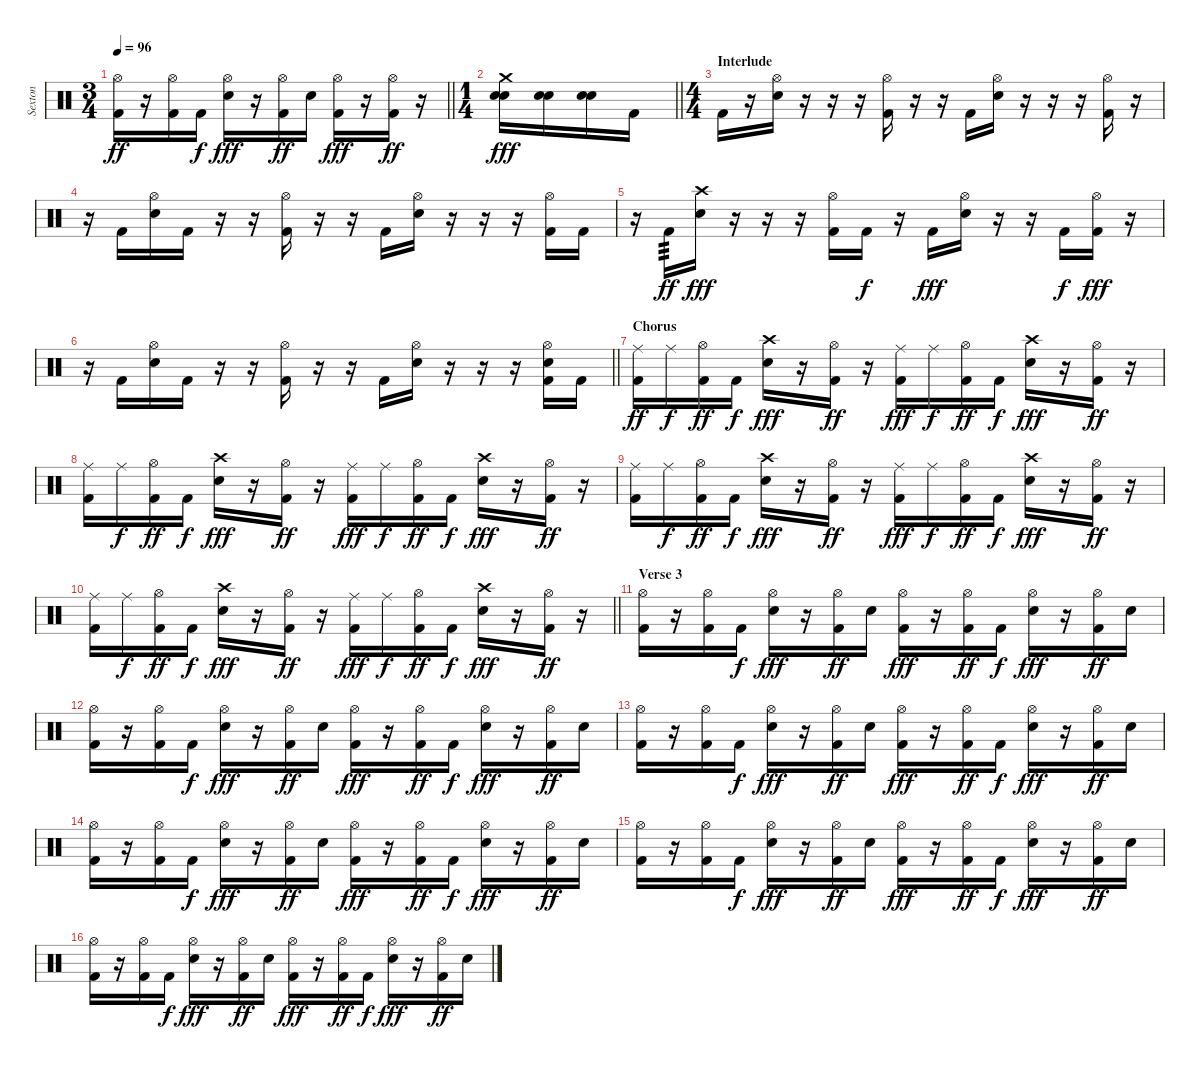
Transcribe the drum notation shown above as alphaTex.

\track ("Sexton" "Sexton") {instrument percussion}
\staff {score}
\articulation defaults
\ts (3 4)
\tempo 96
\clef neutral
\barLineRight lightlight
\ks c
("Hi-Hat (open)" "Kick (hit) 2").16{dy ff} r.16 ("Hi-Hat (open)" "Kick (hit) 2").16 "Kick (hit) 2".16{dy f} ("Hi-Hat (open)" "Electric Snare (hit)").16{dy fff} r.16 ("Hi-Hat (open)" "Kick (hit) 2").16{dy ff} "Electric Snare (hit)".16 ("Hi-Hat (open)" "Kick (hit) 2").16{dy fff} r.16 ("Hi-Hat (open)" "Kick (hit) 2").16{dy ff} r.16 |
\ts (1 4)
\barLineRight lightlight
("Crash medium (hit)" "Electric Snare (hit)" "Electric Snare (hit)").16{dy fff} ("Electric Snare (hit)" "Electric Snare (hit)").16 ("Electric Snare (hit)" "Electric Snare (hit)").16 "Kick (hit) 2".16 |
\ts (4 4)
\section ("" "Interlude")
"Kick (hit) 2".16 r.16 ("Hi-Hat (open)" "Electric Snare (hit)").16 r.16 r.16 r.16 ("Hi-Hat (open)" "Kick (hit) 2").16 r.16 r.16 "Kick (hit) 2".16 ("Hi-Hat (open)" "Electric Snare (hit)").16 r.16 r.16 r.16 ("Hi-Hat (open)" "Kick (hit) 2").16 r.16 |
r.16 "Kick (hit) 2".16 ("Hi-Hat (open)" "Electric Snare (hit)").16 "Kick (hit) 2".16 r.16 r.16 ("Hi-Hat (open)" "Kick (hit) 2").16 r.16 r.16 "Kick (hit) 2".16 ("Hi-Hat (open)" "Electric Snare (hit)").16 r.16 r.16 r.16 ("Hi-Hat (open)" "Kick (hit) 2").16 "Kick (hit) 2".16 |
r.16 "Kick (hit) 2".16{tp 3 dy ff} ("Crash high (hit)" "Electric Snare (hit)").16{dy fff} r.16 r.16 r.16 ("Hi-Hat (open)" "Kick (hit) 2").16 "Kick (hit) 2".16{dy f} r.16 "Kick (hit) 2".16{dy fff} ("Hi-Hat (open)" "Electric Snare (hit)").16 r.16 r.16 "Kick (hit) 2".16{dy f} ("Hi-Hat (open)" "Kick (hit) 2").16{dy fff} r.16 |
\barLineRight lightlight
r.16 "Kick (hit) 2".16 ("Hi-Hat (open)" "Electric Snare (hit)").16 "Kick (hit) 2".16 r.16 r.16 ("Hi-Hat (open)" "Kick (hit) 2").16 r.16 r.16 "Kick (hit) 2".16 ("Hi-Hat (open)" "Electric Snare (hit)").16 r.16 r.16 r.16 ("Hi-Hat (open)" "Electric Snare (hit)" "Kick (hit) 2").16 "Kick (hit) 2".16 |
\section ("" "Chorus")
("Ride (middle)" "Kick (hit) 2").16{dy ff} "Ride (middle)".16{dy f} ("Hi-Hat (open)" "Kick (hit) 2").16{dy ff} "Kick (hit) 2".16{dy f} ("Crash high (hit)" "Electric Snare (hit)").16{dy fff} r.16 ("Hi-Hat (open)" "Kick (hit) 2").16{dy ff} r.16 ("Ride (middle)" "Kick (hit) 2").16{dy fff} "Ride (middle)".16{dy f} ("Hi-Hat (open)" "Kick (hit) 2").16{dy ff} "Kick (hit) 2".16{dy f} ("Crash high (hit)" "Electric Snare (hit)").16{dy fff} r.16 ("Hi-Hat (open)" "Kick (hit) 2").16{dy ff} r.16 |
("Ride (middle)" "Kick (hit) 2").16 "Ride (middle)".16{dy f} ("Hi-Hat (open)" "Kick (hit) 2").16{dy ff} "Kick (hit) 2".16{dy f} ("Crash high (hit)" "Electric Snare (hit)").16{dy fff} r.16 ("Hi-Hat (open)" "Kick (hit) 2").16{dy ff} r.16 ("Ride (middle)" "Kick (hit) 2").16{dy fff} "Ride (middle)".16{dy f} ("Hi-Hat (open)" "Kick (hit) 2").16{dy ff} "Kick (hit) 2".16{dy f} ("Crash high (hit)" "Electric Snare (hit)").16{dy fff} r.16 ("Hi-Hat (open)" "Kick (hit) 2").16{dy ff} r.16 |
("Ride (middle)" "Kick (hit) 2").16 "Ride (middle)".16{dy f} ("Hi-Hat (open)" "Kick (hit) 2").16{dy ff} "Kick (hit) 2".16{dy f} ("Crash high (hit)" "Electric Snare (hit)").16{dy fff} r.16 ("Hi-Hat (open)" "Kick (hit) 2").16{dy ff} r.16 ("Ride (middle)" "Kick (hit) 2").16{dy fff} "Ride (middle)".16{dy f} ("Hi-Hat (open)" "Kick (hit) 2").16{dy ff} "Kick (hit) 2".16{dy f} ("Crash high (hit)" "Electric Snare (hit)").16{dy fff} r.16 ("Hi-Hat (open)" "Kick (hit) 2").16{dy ff} r.16 |
\barLineRight lightlight
("Ride (middle)" "Kick (hit) 2").16 "Ride (middle)".16{dy f} ("Hi-Hat (open)" "Kick (hit) 2").16{dy ff} "Kick (hit) 2".16{dy f} ("Crash high (hit)" "Electric Snare (hit)").16{dy fff} r.16 ("Hi-Hat (open)" "Kick (hit) 2").16{dy ff} r.16 ("Ride (middle)" "Kick (hit) 2").16{dy fff} "Ride (middle)".16{dy f} ("Hi-Hat (open)" "Kick (hit) 2").16{dy ff} "Kick (hit) 2".16{dy f} ("Crash high (hit)" "Electric Snare (hit)").16{dy fff} r.16 ("Hi-Hat (open)" "Kick (hit) 2").16{dy ff} r.16 |
\section ("" "Verse 3")
("Hi-Hat (open)" "Kick (hit) 2").16 r.16 ("Hi-Hat (open)" "Kick (hit) 2").16 "Kick (hit) 2".16{dy f} ("Hi-Hat (open)" "Electric Snare (hit)").16{dy fff} r.16 ("Hi-Hat (open)" "Kick (hit) 2").16{dy ff} "Electric Snare (hit)".16 ("Hi-Hat (open)" "Kick (hit) 2").16{dy fff} r.16 ("Hi-Hat (open)" "Kick (hit) 2").16{dy ff} "Kick (hit) 2".16{dy f} ("Hi-Hat (open)" "Electric Snare (hit)").16{dy fff} r.16 ("Hi-Hat (open)" "Kick (hit) 2").16{dy ff} "Electric Snare (hit)".16 |
("Hi-Hat (open)" "Kick (hit) 2").16 r.16 ("Hi-Hat (open)" "Kick (hit) 2").16 "Kick (hit) 2".16{dy f} ("Hi-Hat (open)" "Electric Snare (hit)").16{dy fff} r.16 ("Hi-Hat (open)" "Kick (hit) 2").16{dy ff} "Electric Snare (hit)".16 ("Hi-Hat (open)" "Kick (hit) 2").16{dy fff} r.16 ("Hi-Hat (open)" "Kick (hit) 2").16{dy ff} "Kick (hit) 2".16{dy f} ("Hi-Hat (open)" "Electric Snare (hit)").16{dy fff} r.16 ("Hi-Hat (open)" "Kick (hit) 2").16{dy ff} "Electric Snare (hit)".16 |
("Hi-Hat (open)" "Kick (hit) 2").16 r.16 ("Hi-Hat (open)" "Kick (hit) 2").16 "Kick (hit) 2".16{dy f} ("Hi-Hat (open)" "Electric Snare (hit)").16{dy fff} r.16 ("Hi-Hat (open)" "Kick (hit) 2").16{dy ff} "Electric Snare (hit)".16 ("Hi-Hat (open)" "Kick (hit) 2").16{dy fff} r.16 ("Hi-Hat (open)" "Kick (hit) 2").16{dy ff} "Kick (hit) 2".16{dy f} ("Hi-Hat (open)" "Electric Snare (hit)").16{dy fff} r.16 ("Hi-Hat (open)" "Kick (hit) 2").16{dy ff} "Electric Snare (hit)".16 |
("Hi-Hat (open)" "Kick (hit) 2").16 r.16 ("Hi-Hat (open)" "Kick (hit) 2").16 "Kick (hit) 2".16{dy f} ("Hi-Hat (open)" "Electric Snare (hit)").16{dy fff} r.16 ("Hi-Hat (open)" "Kick (hit) 2").16{dy ff} "Electric Snare (hit)".16 ("Hi-Hat (open)" "Kick (hit) 2").16{dy fff} r.16 ("Hi-Hat (open)" "Kick (hit) 2").16{dy ff} "Kick (hit) 2".16{dy f} ("Hi-Hat (open)" "Electric Snare (hit)").16{dy fff} r.16 ("Hi-Hat (open)" "Kick (hit) 2").16{dy ff} "Electric Snare (hit)".16 |
("Hi-Hat (open)" "Kick (hit) 2").16 r.16 ("Hi-Hat (open)" "Kick (hit) 2").16 "Kick (hit) 2".16{dy f} ("Hi-Hat (open)" "Electric Snare (hit)").16{dy fff} r.16 ("Hi-Hat (open)" "Kick (hit) 2").16{dy ff} "Electric Snare (hit)".16 ("Hi-Hat (open)" "Kick (hit) 2").16{dy fff} r.16 ("Hi-Hat (open)" "Kick (hit) 2").16{dy ff} "Kick (hit) 2".16{dy f} ("Hi-Hat (open)" "Electric Snare (hit)").16{dy fff} r.16 ("Hi-Hat (open)" "Kick (hit) 2").16{dy ff} "Electric Snare (hit)".16 |
("Hi-Hat (open)" "Kick (hit) 2").16 r.16 ("Hi-Hat (open)" "Kick (hit) 2").16 "Kick (hit) 2".16{dy f} ("Hi-Hat (open)" "Electric Snare (hit)").16{dy fff} r.16 ("Hi-Hat (open)" "Kick (hit) 2").16{dy ff} "Electric Snare (hit)".16 ("Hi-Hat (open)" "Kick (hit) 2").16{dy fff} r.16 ("Hi-Hat (open)" "Kick (hit) 2").16{dy ff} "Kick (hit) 2".16{dy f} ("Hi-Hat (open)" "Electric Snare (hit)").16{dy fff} r.16 ("Hi-Hat (open)" "Kick (hit) 2").16{dy ff} "Electric Snare (hit)".16
